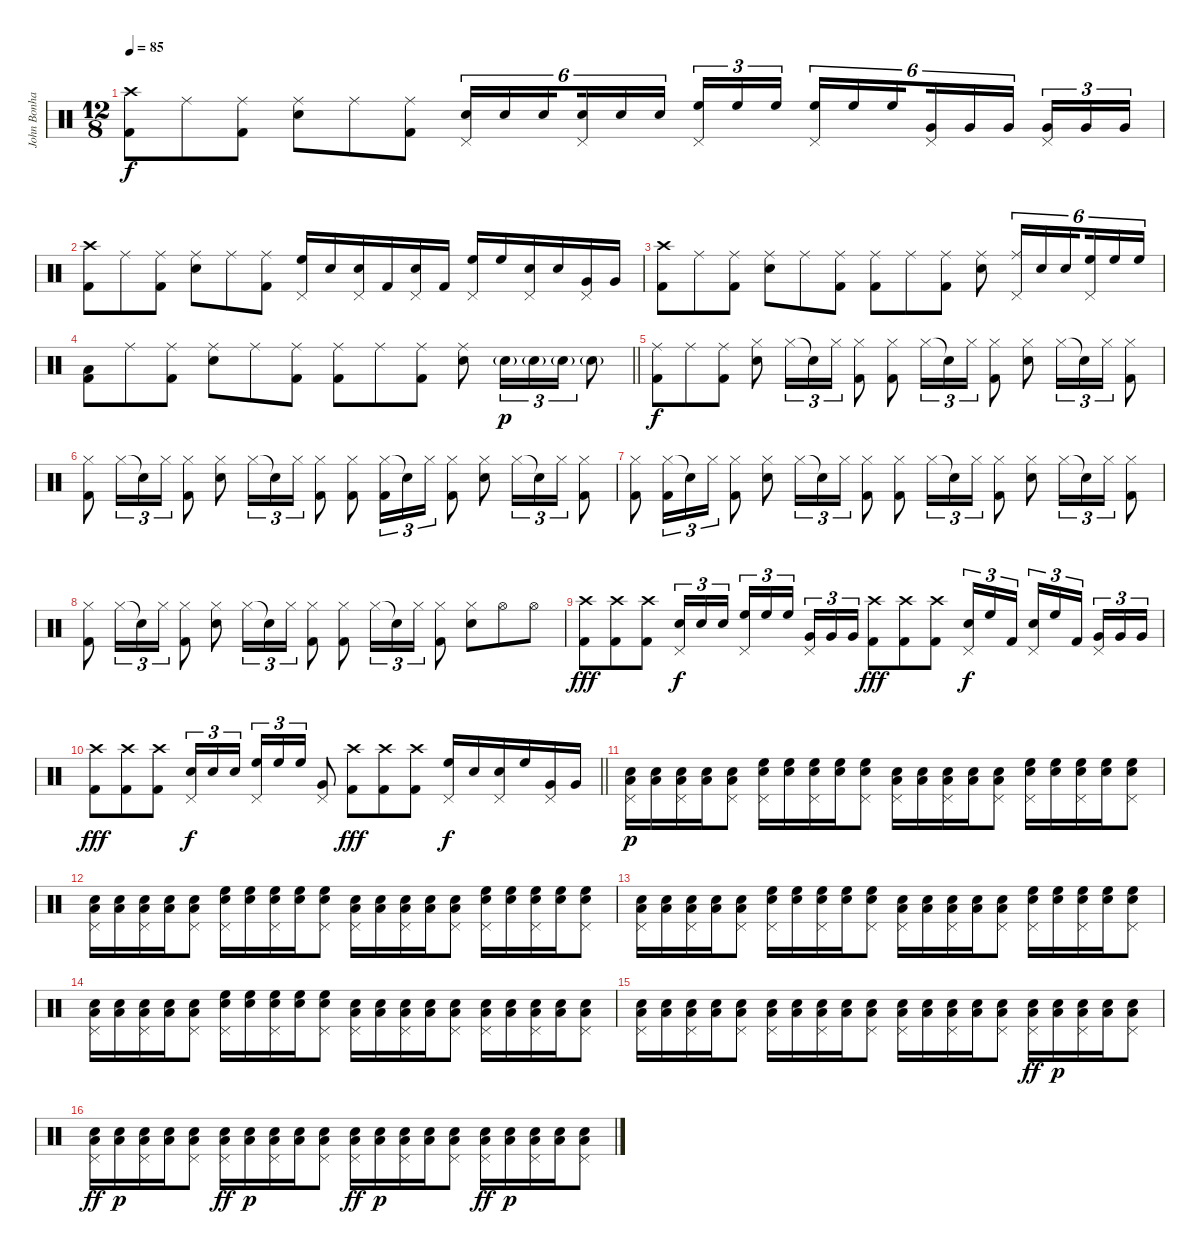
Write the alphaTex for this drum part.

\track ("John Bonham - Drums" "John Bonha") {instrument percussion}
\staff {score}
\articulation defaults
\ts (12 8)
\tempo 85
\clef neutral
\ks c
("Crash high (hit)" "Kick (hit) 2").8{dy f} "Ride (middle)".8 ("Ride (middle)" "Kick (hit) 2").8 ("Ride (middle)" "Snare (hit) 2").8 "Ride (middle)".8 ("Ride (middle)" "Kick (hit) 2").8 ("Pedal Hi-Hat (hit)" "Snare (hit) 2").16{tu (6 4)} "Snare (hit) 2".16{tu (6 4)} "Snare (hit) 2".16{tu (6 4) beam splitsecondary} ("Pedal Hi-Hat (hit)" "Snare (hit) 2").16{tu (6 4)} "Snare (hit) 2".16{tu (6 4)} "Snare (hit) 2".16{tu (6 4) beam splitsecondary} ("Pedal Hi-Hat (hit)" "High Floor Tom (hit)").16{tu (3 2)} "High Floor Tom (hit)".16{tu (3 2)} "High Floor Tom (hit)".16{tu (3 2)} ("Pedal Hi-Hat (hit)" "High Floor Tom (hit)").16{tu (6 4)} "High Floor Tom (hit)".16{tu (6 4)} "High Floor Tom (hit)".16{tu (6 4) beam splitsecondary} ("Pedal Hi-Hat (hit)" "Very Low Tom (hit)").16{tu (6 4)} "Very Low Tom (hit)".16{tu (6 4)} "Very Low Tom (hit)".16{tu (6 4) beam splitsecondary} ("Pedal Hi-Hat (hit)" "Very Low Tom (hit)").16{tu (3 2)} "Very Low Tom (hit)".16{tu (3 2)} "Very Low Tom (hit)".16{tu (3 2)} |
("Crash high (hit)" "Kick (hit) 2").8 "Ride (middle)".8 ("Ride (middle)" "Kick (hit) 2").8 ("Ride (middle)" "Snare (hit) 2").8 "Ride (middle)".8 ("Ride (middle)" "Kick (hit) 2").8 ("Pedal Hi-Hat (hit)" "High Floor Tom (hit)").16 "Snare (hit) 2".16 ("Pedal Hi-Hat (hit)" "Snare (hit) 2").16 "Kick (hit) 2".16 ("Pedal Hi-Hat (hit)" "Snare (hit) 2").16 "Kick (hit) 2".16 ("Pedal Hi-Hat (hit)" "High Floor Tom (hit)").16 "High Floor Tom (hit)".16 ("Pedal Hi-Hat (hit)" "Snare (hit) 2").16 "Snare (hit) 2".16 ("Pedal Hi-Hat (hit)" "Very Low Tom (hit)").16 "Very Low Tom (hit)".16 |
("Crash high (hit)" "Kick (hit) 2").8 "Ride (middle)".8 ("Ride (middle)" "Kick (hit) 2").8 ("Ride (middle)" "Snare (hit) 2").8 "Ride (middle)".8 ("Ride (middle)" "Kick (hit) 2").8 ("Ride (middle)" "Kick (hit) 2").8 "Ride (middle)".8 ("Ride (middle)" "Kick (hit) 2").8 ("Ride (middle)" "Snare (hit) 2").8 ("Pedal Hi-Hat (hit)" "Ride (middle)").16{tu (6 4)} "Snare (hit) 2".16{tu (6 4)} "Snare (hit) 2".16{tu (6 4) beam splitsecondary} ("Pedal Hi-Hat (hit)" "High Floor Tom (hit)").16{tu (6 4)} "High Floor Tom (hit)".16{tu (6 4)} "High Floor Tom (hit)".16{tu (6 4)} |
\barLineRight lightlight
("Low Floor Tom (hit)" "Kick (hit) 2").8 "Ride (middle)".8 ("Ride (middle)" "Kick (hit) 2").8 ("Ride (middle)" "Snare (hit) 2").8 "Ride (middle)".8 ("Ride (middle)" "Kick (hit) 2").8 ("Ride (middle)" "Kick (hit) 2").8 "Ride (middle)".8 ("Ride (middle)" "Kick (hit) 2").8 ("Ride (middle)" "Snare (hit) 2").8 "Snare (hit) 2"{g}.16{tu (3 2) dy p} "Snare (hit) 2"{g}.16{tu (3 2)} "Snare (hit) 2"{g}.16{tu (3 2)} "Snare (hit) 2"{g}.8 |
("Ride (middle)" "Kick (hit) 2").8{dy f volume 10} "Ride (middle)".8 ("Ride (middle)" "Kick (hit) 2").8 ("Hi-Hat (closed)" "Snare (hit) 2").8 "Hi-Hat (closed)".16{tu (3 2)} "Snare (hit)"{t}.16{tu (3 2)} "Hi-Hat (closed)".16{tu (3 2)} ("Hi-Hat (closed)" "Kick (hit) 2").8 ("Hi-Hat (closed)" "Kick (hit) 2").8 "Hi-Hat (closed)".16{tu (3 2)} "Snare (hit)"{t}.16{tu (3 2)} "Hi-Hat (closed)".16{tu (3 2)} ("Hi-Hat (closed)" "Kick (hit) 2").8 ("Hi-Hat (closed)" "Snare (hit) 2").8 "Hi-Hat (closed)".16{tu (3 2)} "Snare (hit)"{t}.16{tu (3 2)} "Hi-Hat (closed)".16{tu (3 2)} ("Hi-Hat (closed)" "Kick (hit) 2").8 |
("Hi-Hat (closed)" "Kick (hit) 2").8 "Hi-Hat (closed)".16{tu (3 2)} "Snare (hit)"{t}.16{tu (3 2)} "Hi-Hat (closed)".16{tu (3 2)} ("Hi-Hat (closed)" "Kick (hit) 2").8 ("Hi-Hat (closed)" "Snare (hit) 2").8 "Hi-Hat (closed)".16{tu (3 2)} "Snare (hit)"{t}.16{tu (3 2)} "Hi-Hat (closed)".16{tu (3 2)} ("Hi-Hat (closed)" "Kick (hit) 2").8 ("Hi-Hat (closed)" "Kick (hit) 2").8 ("Hi-Hat (closed)" "Kick (hit) 2").16{tu (3 2)} "Snare (hit)"{t}.16{tu (3 2)} "Hi-Hat (closed)".16{tu (3 2)} ("Hi-Hat (closed)" "Kick (hit) 2").8 ("Hi-Hat (closed)" "Snare (hit) 2").8 "Hi-Hat (closed)".16{tu (3 2)} "Snare (hit)"{t}.16{tu (3 2)} "Hi-Hat (closed)".16{tu (3 2)} ("Hi-Hat (closed)" "Kick (hit) 2").8 |
("Hi-Hat (closed)" "Kick (hit) 2").8 ("Hi-Hat (closed)" "Kick (hit) 2").16{tu (3 2)} "Snare (hit)"{t}.16{tu (3 2)} "Hi-Hat (closed)".16{tu (3 2)} ("Hi-Hat (closed)" "Kick (hit) 2").8 ("Hi-Hat (closed)" "Snare (hit) 2").8 "Hi-Hat (closed)".16{tu (3 2)} "Snare (hit)"{t}.16{tu (3 2)} "Hi-Hat (closed)".16{tu (3 2)} ("Hi-Hat (closed)" "Kick (hit) 2").8 ("Hi-Hat (closed)" "Kick (hit) 2").8 "Hi-Hat (closed)".16{tu (3 2)} "Snare (hit)"{t}.16{tu (3 2)} "Hi-Hat (closed)".16{tu (3 2)} ("Hi-Hat (closed)" "Kick (hit) 2").8 ("Hi-Hat (closed)" "Snare (hit) 2").8 "Hi-Hat (closed)".16{tu (3 2)} "Snare (hit)"{t}.16{tu (3 2)} "Hi-Hat (closed)".16{tu (3 2)} ("Hi-Hat (closed)" "Kick (hit) 2").8 |
("Hi-Hat (closed)" "Kick (hit) 2").8 "Hi-Hat (closed)".16{tu (3 2)} "Snare (hit)"{t}.16{tu (3 2)} "Hi-Hat (closed)".16{tu (3 2)} ("Hi-Hat (closed)" "Kick (hit) 2").8 ("Hi-Hat (closed)" "Snare (hit) 2").8 "Hi-Hat (closed)".16{tu (3 2)} "Snare (hit)"{t}.16{tu (3 2)} "Hi-Hat (closed)".16{tu (3 2)} ("Hi-Hat (closed)" "Kick (hit) 2").8 ("Hi-Hat (closed)" "Kick (hit) 2").8 "Hi-Hat (closed)".16{tu (3 2)} "Snare (hit)"{t}.16{tu (3 2)} "Hi-Hat (closed)".16{tu (3 2)} ("Hi-Hat (closed)" "Kick (hit) 2").8 ("Hi-Hat (closed)" "Snare (hit) 2").8 "Hi-Hat (open)".8 "Hi-Hat (open)".8 |
("Crash high (hit)" "Kick (hit) 2").8{dy fff volume 16} ("Crash high (hit)" "Kick (hit) 2").8 ("Crash high (hit)" "Kick (hit) 2").8 ("Pedal Hi-Hat (hit)" "Snare (hit) 2").16{tu (3 2) dy f} "Snare (hit) 2".16{tu (3 2)} "Snare (hit) 2".16{tu (3 2) beam splitsecondary} ("Pedal Hi-Hat (hit)" "High Floor Tom (hit)").16{tu (3 2)} "High Floor Tom (hit)".16{tu (3 2)} "High Floor Tom (hit)".16{tu (3 2) beam splitsecondary} ("Pedal Hi-Hat (hit)" "Very Low Tom (hit)").16{tu (3 2)} "Very Low Tom (hit)".16{tu (3 2)} "Very Low Tom (hit)".16{tu (3 2)} ("Crash high (hit)" "Kick (hit) 2").8{dy fff} ("Crash high (hit)" "Kick (hit) 2").8 ("Crash high (hit)" "Kick (hit) 2").8 ("Pedal Hi-Hat (hit)" "Snare (hit) 2").16{tu (3 2) dy f} "High Floor Tom (hit)".16{tu (3 2)} "Kick (hit) 2".16{tu (3 2) beam splitsecondary} ("Pedal Hi-Hat (hit)" "Snare (hit) 2").16{tu (3 2)} "High Floor Tom (hit)".16{tu (3 2)} "Kick (hit) 2".16{tu (3 2) beam splitsecondary} ("Pedal Hi-Hat (hit)" "Very Low Tom (hit)").16{tu (3 2)} "Very Low Tom (hit)".16{tu (3 2)} "Very Low Tom (hit)".16{tu (3 2)} |
\barLineRight lightlight
("Crash high (hit)" "Kick (hit) 2").8{dy fff} ("Crash high (hit)" "Kick (hit) 2").8 ("Crash high (hit)" "Kick (hit) 2").8 ("Pedal Hi-Hat (hit)" "Snare (hit) 2").16{tu (3 2) dy f} "Snare (hit) 2".16{tu (3 2)} "Snare (hit) 2".16{tu (3 2) beam splitsecondary} ("Pedal Hi-Hat (hit)" "High Floor Tom (hit)").16{tu (3 2)} "High Floor Tom (hit)".16{tu (3 2)} "High Floor Tom (hit)".16{tu (3 2)} ("Pedal Hi-Hat (hit)" "Very Low Tom (hit)").8 ("Crash high (hit)" "Kick (hit) 2").8{dy fff} ("Crash high (hit)" "Kick (hit) 2").8 ("Crash high (hit)" "Kick (hit) 2").8 ("Pedal Hi-Hat (hit)" "High Floor Tom (hit)").16{dy f} "Snare (hit) 2".16 ("Pedal Hi-Hat (hit)" "Snare (hit) 2").16 "High Floor Tom (hit)".16 ("Pedal Hi-Hat (hit)" "Very Low Tom (hit)").16 "Very Low Tom (hit)".16 |
("Pedal Hi-Hat (hit)" "Low Floor Tom (hit)" "Snare (hit) 2").16{dy p volume 7} ("Low Floor Tom (hit)" "Snare (hit) 2").16 ("Pedal Hi-Hat (hit)" "Low Floor Tom (hit)" "Snare (hit) 2").16 ("Low Floor Tom (hit)" "Snare (hit) 2").16 ("Pedal Hi-Hat (hit)" "Low Floor Tom (hit)" "Snare (hit) 2").8 ("Pedal Hi-Hat (hit)" "High Floor Tom (hit)" "Snare (hit) 2").16 ("High Floor Tom (hit)" "Snare (hit) 2").16 ("Pedal Hi-Hat (hit)" "High Floor Tom (hit)" "Snare (hit) 2").16 ("High Floor Tom (hit)" "Snare (hit) 2").16 ("Pedal Hi-Hat (hit)" "High Floor Tom (hit)" "Snare (hit) 2").8 ("Pedal Hi-Hat (hit)" "Low Floor Tom (hit)" "Snare (hit) 2").16 ("Low Floor Tom (hit)" "Snare (hit) 2").16 ("Pedal Hi-Hat (hit)" "Low Floor Tom (hit)" "Snare (hit) 2").16 ("Low Floor Tom (hit)" "Snare (hit) 2").16 ("Pedal Hi-Hat (hit)" "Low Floor Tom (hit)" "Snare (hit) 2").8 ("Pedal Hi-Hat (hit)" "High Floor Tom (hit)" "Snare (hit) 2").16 ("High Floor Tom (hit)" "Snare (hit) 2").16 ("Pedal Hi-Hat (hit)" "High Floor Tom (hit)" "Snare (hit) 2").16 ("High Floor Tom (hit)" "Snare (hit) 2").16 ("Pedal Hi-Hat (hit)" "High Floor Tom (hit)" "Snare (hit) 2").8 |
("Pedal Hi-Hat (hit)" "Low Floor Tom (hit)" "Snare (hit) 2").16 ("Low Floor Tom (hit)" "Snare (hit) 2").16 ("Pedal Hi-Hat (hit)" "Low Floor Tom (hit)" "Snare (hit) 2").16 ("Low Floor Tom (hit)" "Snare (hit) 2").16 ("Pedal Hi-Hat (hit)" "Low Floor Tom (hit)" "Snare (hit) 2").8 ("Pedal Hi-Hat (hit)" "High Floor Tom (hit)" "Snare (hit) 2").16 ("High Floor Tom (hit)" "Snare (hit) 2").16 ("Pedal Hi-Hat (hit)" "High Floor Tom (hit)" "Snare (hit) 2").16 ("High Floor Tom (hit)" "Snare (hit) 2").16 ("Pedal Hi-Hat (hit)" "High Floor Tom (hit)" "Snare (hit) 2").8 ("Pedal Hi-Hat (hit)" "Low Floor Tom (hit)" "Snare (hit) 2").16 ("Low Floor Tom (hit)" "Snare (hit) 2").16 ("Pedal Hi-Hat (hit)" "Low Floor Tom (hit)" "Snare (hit) 2").16 ("Low Floor Tom (hit)" "Snare (hit) 2").16 ("Pedal Hi-Hat (hit)" "Low Floor Tom (hit)" "Snare (hit) 2").8 ("Pedal Hi-Hat (hit)" "High Floor Tom (hit)" "Snare (hit) 2").16 ("High Floor Tom (hit)" "Snare (hit) 2").16 ("Pedal Hi-Hat (hit)" "High Floor Tom (hit)" "Snare (hit) 2").16 ("High Floor Tom (hit)" "Snare (hit) 2").16 ("Pedal Hi-Hat (hit)" "High Floor Tom (hit)" "Snare (hit) 2").8 |
("Pedal Hi-Hat (hit)" "Low Floor Tom (hit)" "Snare (hit) 2").16 ("Low Floor Tom (hit)" "Snare (hit) 2").16 ("Pedal Hi-Hat (hit)" "Low Floor Tom (hit)" "Snare (hit) 2").16 ("Low Floor Tom (hit)" "Snare (hit) 2").16 ("Pedal Hi-Hat (hit)" "Low Floor Tom (hit)" "Snare (hit) 2").8 ("Pedal Hi-Hat (hit)" "High Floor Tom (hit)" "Snare (hit) 2").16 ("High Floor Tom (hit)" "Snare (hit) 2").16 ("Pedal Hi-Hat (hit)" "High Floor Tom (hit)" "Snare (hit) 2").16 ("High Floor Tom (hit)" "Snare (hit) 2").16 ("Pedal Hi-Hat (hit)" "High Floor Tom (hit)" "Snare (hit) 2").8 ("Pedal Hi-Hat (hit)" "Low Floor Tom (hit)" "Snare (hit) 2").16 ("Low Floor Tom (hit)" "Snare (hit) 2").16 ("Pedal Hi-Hat (hit)" "Low Floor Tom (hit)" "Snare (hit) 2").16 ("Low Floor Tom (hit)" "Snare (hit) 2").16 ("Pedal Hi-Hat (hit)" "Low Floor Tom (hit)" "Snare (hit) 2").8 ("Pedal Hi-Hat (hit)" "High Floor Tom (hit)" "Snare (hit) 2").16 ("High Floor Tom (hit)" "Snare (hit) 2").16 ("Pedal Hi-Hat (hit)" "High Floor Tom (hit)" "Snare (hit) 2").16 ("High Floor Tom (hit)" "Snare (hit) 2").16 ("Pedal Hi-Hat (hit)" "High Floor Tom (hit)" "Snare (hit) 2").8 |
("Pedal Hi-Hat (hit)" "Low Floor Tom (hit)" "Snare (hit) 2").16 ("Low Floor Tom (hit)" "Snare (hit) 2").16 ("Pedal Hi-Hat (hit)" "Low Floor Tom (hit)" "Snare (hit) 2").16 ("Low Floor Tom (hit)" "Snare (hit) 2").16 ("Pedal Hi-Hat (hit)" "Low Floor Tom (hit)" "Snare (hit) 2").8 ("Pedal Hi-Hat (hit)" "High Floor Tom (hit)" "Snare (hit) 2").16 ("High Floor Tom (hit)" "Snare (hit) 2").16 ("Pedal Hi-Hat (hit)" "High Floor Tom (hit)" "Snare (hit) 2").16 ("High Floor Tom (hit)" "Snare (hit) 2").16 ("Pedal Hi-Hat (hit)" "High Floor Tom (hit)" "Snare (hit) 2").8 ("Pedal Hi-Hat (hit)" "Low Floor Tom (hit)" "Snare (hit) 2").16 ("Low Floor Tom (hit)" "Snare (hit) 2").16 ("Pedal Hi-Hat (hit)" "Low Floor Tom (hit)" "Snare (hit) 2").16 ("Low Floor Tom (hit)" "Snare (hit) 2").16 ("Pedal Hi-Hat (hit)" "Low Floor Tom (hit)" "Snare (hit) 2").8 ("Pedal Hi-Hat (hit)" "Low Floor Tom (hit)" "Snare (hit) 2").16 ("Low Floor Tom (hit)" "Snare (hit) 2").16 ("Pedal Hi-Hat (hit)" "Low Floor Tom (hit)" "Snare (hit) 2").16 ("Low Floor Tom (hit)" "Snare (hit) 2").16 ("Pedal Hi-Hat (hit)" "Low Floor Tom (hit)" "Snare (hit) 2").8 |
("Pedal Hi-Hat (hit)" "Low Floor Tom (hit)" "Snare (hit) 2").16 ("Low Floor Tom (hit)" "Snare (hit) 2").16 ("Pedal Hi-Hat (hit)" "Low Floor Tom (hit)" "Snare (hit) 2").16 ("Low Floor Tom (hit)" "Snare (hit) 2").16 ("Pedal Hi-Hat (hit)" "Low Floor Tom (hit)" "Snare (hit) 2").8 ("Pedal Hi-Hat (hit)" "Low Floor Tom (hit)" "Snare (hit) 2").16 ("Low Floor Tom (hit)" "Snare (hit) 2").16 ("Pedal Hi-Hat (hit)" "Low Floor Tom (hit)" "Snare (hit) 2").16 ("Low Floor Tom (hit)" "Snare (hit) 2").16 ("Pedal Hi-Hat (hit)" "Low Floor Tom (hit)" "Snare (hit) 2").8 ("Pedal Hi-Hat (hit)" "Low Floor Tom (hit)" "Snare (hit) 2").16 ("Low Floor Tom (hit)" "Snare (hit) 2").16 ("Pedal Hi-Hat (hit)" "Low Floor Tom (hit)" "Snare (hit) 2").16 ("Low Floor Tom (hit)" "Snare (hit) 2").16 ("Pedal Hi-Hat (hit)" "Low Floor Tom (hit)" "Snare (hit) 2").8 ("Pedal Hi-Hat (hit)" "Low Floor Tom (hit)" "Snare (hit) 2").16{dy ff} ("Low Floor Tom (hit)" "Snare (hit) 2").16{dy p} ("Pedal Hi-Hat (hit)" "Low Floor Tom (hit)" "Snare (hit) 2").16 ("Low Floor Tom (hit)" "Snare (hit) 2").16 ("Pedal Hi-Hat (hit)" "Low Floor Tom (hit)" "Snare (hit) 2").8 |
("Pedal Hi-Hat (hit)" "Low Floor Tom (hit)" "Snare (hit) 2").16{dy ff} ("Low Floor Tom (hit)" "Snare (hit) 2").16{dy p} ("Pedal Hi-Hat (hit)" "Low Floor Tom (hit)" "Snare (hit) 2").16 ("Low Floor Tom (hit)" "Snare (hit) 2").16 ("Pedal Hi-Hat (hit)" "Low Floor Tom (hit)" "Snare (hit) 2").8 ("Pedal Hi-Hat (hit)" "Low Floor Tom (hit)" "Snare (hit) 2").16{dy ff} ("Low Floor Tom (hit)" "Snare (hit) 2").16{dy p} ("Pedal Hi-Hat (hit)" "Low Floor Tom (hit)" "Snare (hit) 2").16 ("Low Floor Tom (hit)" "Snare (hit) 2").16 ("Pedal Hi-Hat (hit)" "Low Floor Tom (hit)" "Snare (hit) 2").8 ("Pedal Hi-Hat (hit)" "Low Floor Tom (hit)" "Snare (hit) 2").16{dy ff} ("Low Floor Tom (hit)" "Snare (hit) 2").16{dy p} ("Pedal Hi-Hat (hit)" "Low Floor Tom (hit)" "Snare (hit) 2").16 ("Low Floor Tom (hit)" "Snare (hit) 2").16 ("Pedal Hi-Hat (hit)" "Low Floor Tom (hit)" "Snare (hit) 2").8 ("Pedal Hi-Hat (hit)" "Low Floor Tom (hit)" "Snare (hit) 2").16{dy ff} ("Low Floor Tom (hit)" "Snare (hit) 2").16{dy p} ("Pedal Hi-Hat (hit)" "Low Floor Tom (hit)" "Snare (hit) 2").16 ("Low Floor Tom (hit)" "Snare (hit) 2").16 ("Pedal Hi-Hat (hit)" "Low Floor Tom (hit)" "Snare (hit) 2").8
